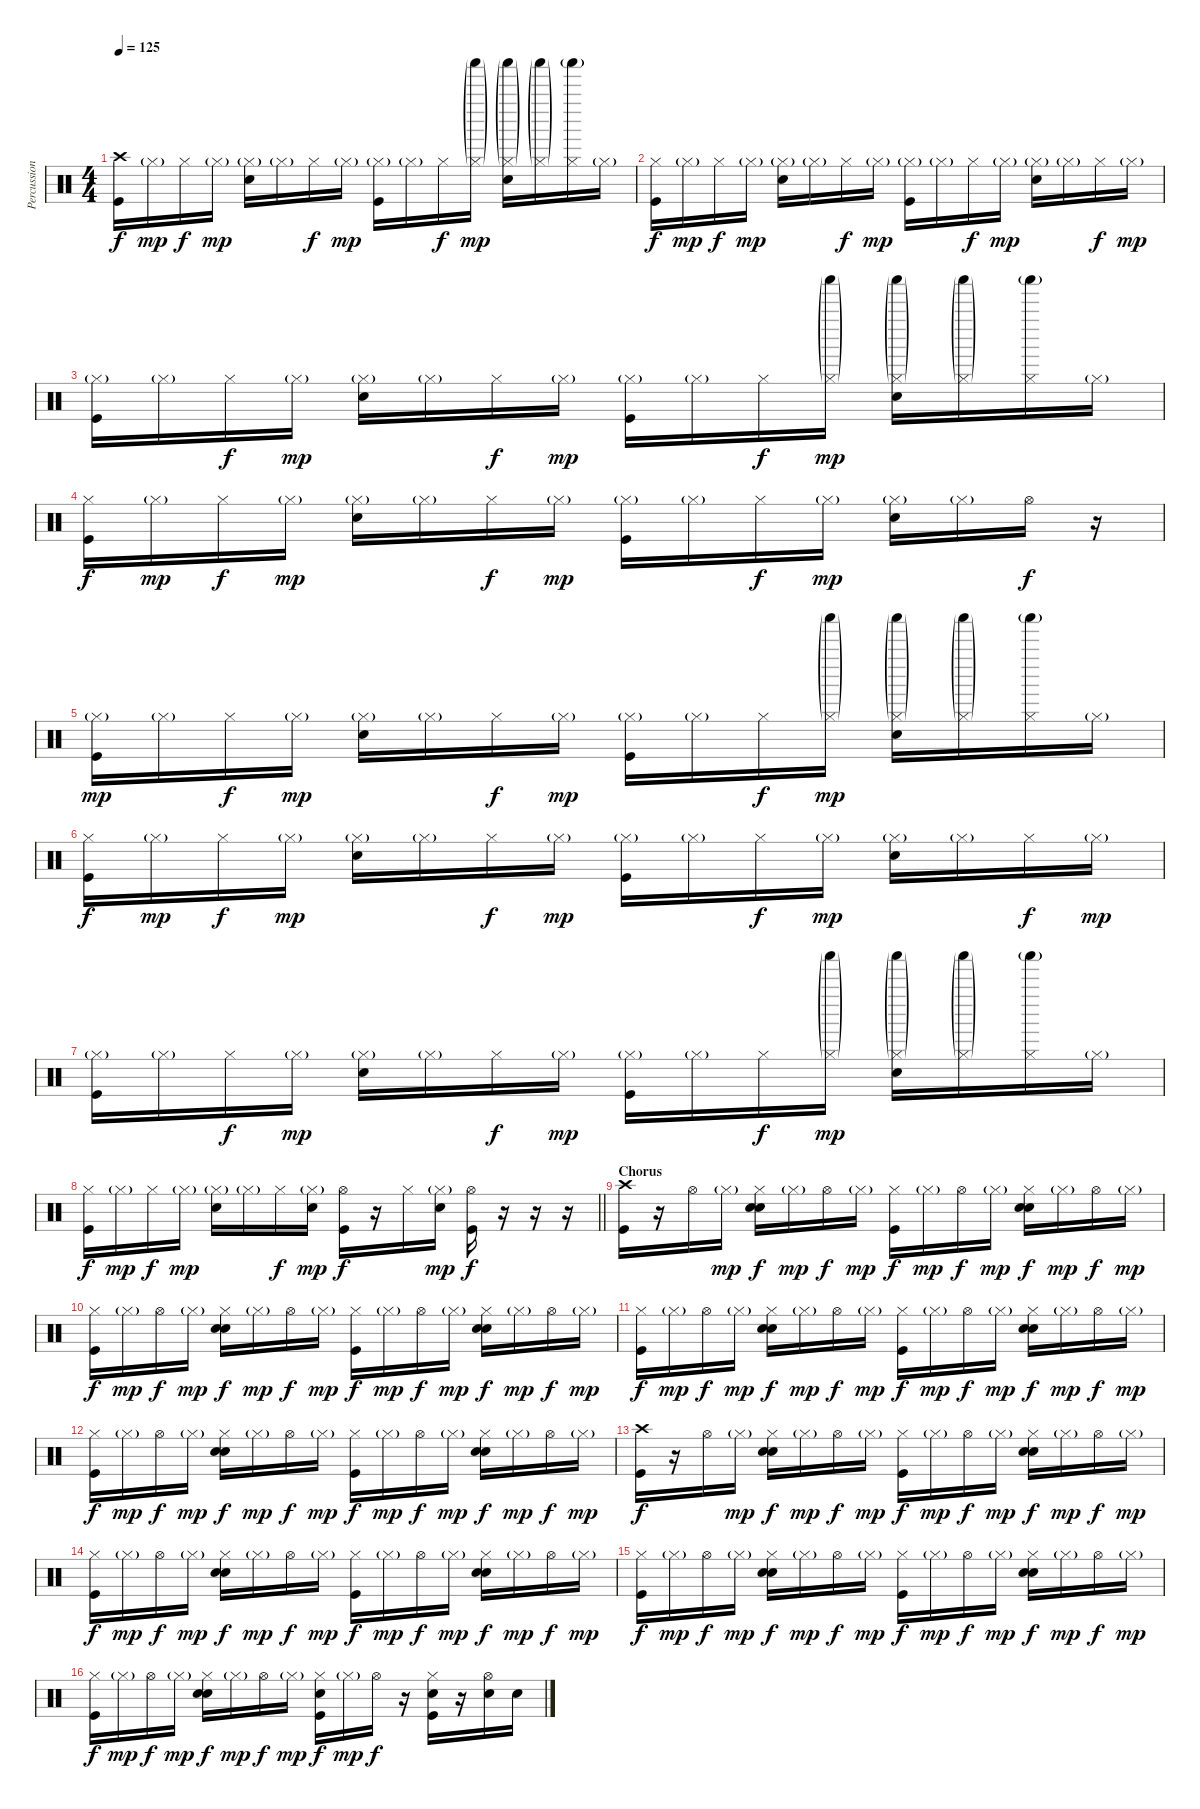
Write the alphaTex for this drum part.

\track ("Percussion" "Percussion") {instrument percussion}
\staff {score}
\articulation defaults
\ts (4 4)
\tempo 125
\clef neutral
\ks c
("Crash high (hit)" "Kick (hit)").16{dy f} "Hi-Hat (closed)"{g}.16{dy mp} "Hi-Hat (closed)".16{dy f} "Hi-Hat (closed)"{g}.16{dy mp} ("Hi-Hat (closed)"{g} "Snare (hit) 2").16 "Hi-Hat (closed)"{g}.16 "Hi-Hat (closed)".16{dy f} "Hi-Hat (closed)"{g}.16{dy mp} ("Hi-Hat (closed)"{g} "Kick (hit)").16 "Hi-Hat (closed)"{g}.16 "Hi-Hat (closed)".16{dy f} ("Shaker (hit)"{g} "Hi-Hat (closed)"{g}).16{dy mp} ("Shaker (hit)"{g} "Hi-Hat (closed)"{g} "Snare (hit) 2").16 ("Shaker (hit)"{g} "Hi-Hat (closed)"{g}).16 ("Shaker (hit)"{g} "Hi-Hat (closed)").16 "Hi-Hat (closed)"{g}.16 |
("Hi-Hat (closed)" "Kick (hit)").16{dy f} "Hi-Hat (closed)"{g}.16{dy mp} "Hi-Hat (closed)".16{dy f} "Hi-Hat (closed)"{g}.16{dy mp} ("Hi-Hat (closed)"{g} "Snare (hit) 2").16 "Hi-Hat (closed)"{g}.16 "Hi-Hat (closed)".16{dy f} "Hi-Hat (closed)"{g}.16{dy mp} ("Hi-Hat (closed)"{g} "Kick (hit)").16 "Hi-Hat (closed)"{g}.16 "Hi-Hat (closed)".16{dy f} "Hi-Hat (closed)"{g}.16{dy mp} ("Hi-Hat (closed)"{g} "Snare (hit) 2").16 "Hi-Hat (closed)"{g}.16 "Hi-Hat (closed)".16{dy f} "Hi-Hat (closed)"{g}.16{dy mp} |
("Hi-Hat (closed)"{g} "Kick (hit)").16 "Hi-Hat (closed)"{g}.16 "Hi-Hat (closed)".16{dy f} "Hi-Hat (closed)"{g}.16{dy mp} ("Hi-Hat (closed)"{g} "Snare (hit) 2").16 "Hi-Hat (closed)"{g}.16 "Hi-Hat (closed)".16{dy f} "Hi-Hat (closed)"{g}.16{dy mp} ("Hi-Hat (closed)"{g} "Kick (hit)").16 "Hi-Hat (closed)"{g}.16 "Hi-Hat (closed)".16{dy f} ("Shaker (hit)"{g} "Hi-Hat (closed)"{g}).16{dy mp} ("Shaker (hit)"{g} "Hi-Hat (closed)"{g} "Snare (hit) 2").16 ("Shaker (hit)"{g} "Hi-Hat (closed)"{g}).16 ("Shaker (hit)"{g} "Hi-Hat (closed)").16 "Hi-Hat (closed)"{g}.16 |
("Hi-Hat (closed)" "Kick (hit)").16{dy f} "Hi-Hat (closed)"{g}.16{dy mp} "Hi-Hat (closed)".16{dy f} "Hi-Hat (closed)"{g}.16{dy mp} ("Hi-Hat (closed)"{g} "Snare (hit) 2").16 "Hi-Hat (closed)"{g}.16 "Hi-Hat (closed)".16{dy f} "Hi-Hat (closed)"{g}.16{dy mp} ("Hi-Hat (closed)"{g} "Kick (hit)").16 "Hi-Hat (closed)"{g}.16 "Hi-Hat (closed)".16{dy f} "Hi-Hat (closed)"{g}.16{dy mp} ("Hi-Hat (closed)"{g} "Snare (hit) 2").16 "Hi-Hat (closed)"{g}.16 "Hi-Hat (open)".16{dy f} r.16 |
("Hi-Hat (closed)"{g} "Kick (hit)").16{dy mp} "Hi-Hat (closed)"{g}.16 "Hi-Hat (closed)".16{dy f} "Hi-Hat (closed)"{g}.16{dy mp} ("Hi-Hat (closed)"{g} "Snare (hit) 2").16 "Hi-Hat (closed)"{g}.16 "Hi-Hat (closed)".16{dy f} "Hi-Hat (closed)"{g}.16{dy mp} ("Hi-Hat (closed)"{g} "Kick (hit)").16 "Hi-Hat (closed)"{g}.16 "Hi-Hat (closed)".16{dy f} ("Shaker (hit)"{g} "Hi-Hat (closed)"{g}).16{dy mp} ("Shaker (hit)"{g} "Hi-Hat (closed)"{g} "Snare (hit) 2").16 ("Shaker (hit)"{g} "Hi-Hat (closed)"{g}).16 ("Shaker (hit)"{g} "Hi-Hat (closed)").16 "Hi-Hat (closed)"{g}.16 |
("Hi-Hat (closed)" "Kick (hit)").16{dy f} "Hi-Hat (closed)"{g}.16{dy mp} "Hi-Hat (closed)".16{dy f} "Hi-Hat (closed)"{g}.16{dy mp} ("Hi-Hat (closed)"{g} "Snare (hit) 2").16 "Hi-Hat (closed)"{g}.16 "Hi-Hat (closed)".16{dy f} "Hi-Hat (closed)"{g}.16{dy mp} ("Hi-Hat (closed)"{g} "Kick (hit)").16 "Hi-Hat (closed)"{g}.16 "Hi-Hat (closed)".16{dy f} "Hi-Hat (closed)"{g}.16{dy mp} ("Hi-Hat (closed)"{g} "Snare (hit) 2").16 "Hi-Hat (closed)"{g}.16 "Hi-Hat (closed)".16{dy f} "Hi-Hat (closed)"{g}.16{dy mp} |
("Hi-Hat (closed)"{g} "Kick (hit)").16 "Hi-Hat (closed)"{g}.16 "Hi-Hat (closed)".16{dy f} "Hi-Hat (closed)"{g}.16{dy mp} ("Hi-Hat (closed)"{g} "Snare (hit) 2").16 "Hi-Hat (closed)"{g}.16 "Hi-Hat (closed)".16{dy f} "Hi-Hat (closed)"{g}.16{dy mp} ("Hi-Hat (closed)"{g} "Kick (hit)").16 "Hi-Hat (closed)"{g}.16 "Hi-Hat (closed)".16{dy f} ("Shaker (hit)"{g} "Hi-Hat (closed)"{g}).16{dy mp} ("Shaker (hit)"{g} "Hi-Hat (closed)"{g} "Snare (hit) 2").16 ("Shaker (hit)"{g} "Hi-Hat (closed)"{g}).16 ("Shaker (hit)"{g} "Hi-Hat (closed)").16 "Hi-Hat (closed)"{g}.16 |
\barLineRight lightlight
("Hi-Hat (closed)" "Kick (hit)").16{dy f} "Hi-Hat (closed)"{g}.16{dy mp} "Hi-Hat (closed)".16{dy f} "Hi-Hat (closed)"{g}.16{dy mp} ("Hi-Hat (closed)"{g} "Snare (hit) 2").16 "Hi-Hat (closed)"{g}.16 "Hi-Hat (closed)".16{dy f} ("Hi-Hat (closed)"{g} "Snare (hit) 2").16{dy mp} ("Hi-Hat (open)" "Kick (hit)").16{dy f} r.16 "Hi-Hat (closed)".16 ("Hi-Hat (closed)"{g} "Snare (hit) 2").16{dy mp} ("Hi-Hat (open)" "Kick (hit)").16{dy f} r.16 r.16 r.16 |
\section ("" "Chorus")
("Crash high (hit)" "Kick (hit)").16 r.16 "Hi-Hat (open)".16 "Hi-Hat (closed)"{g}.16{dy mp} ("Hi-Hat (closed)" "Hand Clap (hit)" "Snare (hit) 2").16{dy f} "Hi-Hat (closed)"{g}.16{dy mp} "Hi-Hat (open)".16{dy f} "Hi-Hat (closed)"{g}.16{dy mp} ("Hi-Hat (closed)" "Kick (hit)").16{dy f} "Hi-Hat (closed)"{g}.16{dy mp} "Hi-Hat (open)".16{dy f} "Hi-Hat (closed)"{g}.16{dy mp} ("Hi-Hat (closed)" "Hand Clap (hit)" "Snare (hit) 2").16{dy f} "Hi-Hat (closed)"{g}.16{dy mp} "Hi-Hat (open)".16{dy f} "Hi-Hat (closed)"{g}.16{dy mp} |
("Hi-Hat (closed)" "Kick (hit)").16{dy f} "Hi-Hat (closed)"{g}.16{dy mp} "Hi-Hat (open)".16{dy f} "Hi-Hat (closed)"{g}.16{dy mp} ("Hi-Hat (closed)" "Hand Clap (hit)" "Snare (hit) 2").16{dy f} "Hi-Hat (closed)"{g}.16{dy mp} "Hi-Hat (open)".16{dy f} "Hi-Hat (closed)"{g}.16{dy mp} ("Hi-Hat (closed)" "Kick (hit)").16{dy f} "Hi-Hat (closed)"{g}.16{dy mp} "Hi-Hat (open)".16{dy f} "Hi-Hat (closed)"{g}.16{dy mp} ("Hi-Hat (closed)" "Hand Clap (hit)" "Snare (hit) 2").16{dy f} "Hi-Hat (closed)"{g}.16{dy mp} "Hi-Hat (open)".16{dy f} "Hi-Hat (closed)"{g}.16{dy mp} |
("Hi-Hat (closed)" "Kick (hit)").16{dy f} "Hi-Hat (closed)"{g}.16{dy mp} "Hi-Hat (open)".16{dy f} "Hi-Hat (closed)"{g}.16{dy mp} ("Hi-Hat (closed)" "Hand Clap (hit)" "Snare (hit) 2").16{dy f} "Hi-Hat (closed)"{g}.16{dy mp} "Hi-Hat (open)".16{dy f} "Hi-Hat (closed)"{g}.16{dy mp} ("Hi-Hat (closed)" "Kick (hit)").16{dy f} "Hi-Hat (closed)"{g}.16{dy mp} "Hi-Hat (open)".16{dy f} "Hi-Hat (closed)"{g}.16{dy mp} ("Hi-Hat (closed)" "Hand Clap (hit)" "Snare (hit) 2").16{dy f} "Hi-Hat (closed)"{g}.16{dy mp} "Hi-Hat (open)".16{dy f} "Hi-Hat (closed)"{g}.16{dy mp} |
("Hi-Hat (closed)" "Kick (hit)").16{dy f} "Hi-Hat (closed)"{g}.16{dy mp} "Hi-Hat (open)".16{dy f} "Hi-Hat (closed)"{g}.16{dy mp} ("Hi-Hat (closed)" "Hand Clap (hit)" "Snare (hit) 2").16{dy f} "Hi-Hat (closed)"{g}.16{dy mp} "Hi-Hat (open)".16{dy f} "Hi-Hat (closed)"{g}.16{dy mp} ("Hi-Hat (closed)" "Kick (hit)").16{dy f} "Hi-Hat (closed)"{g}.16{dy mp} "Hi-Hat (open)".16{dy f} "Hi-Hat (closed)"{g}.16{dy mp} ("Hi-Hat (closed)" "Hand Clap (hit)" "Snare (hit) 2").16{dy f} "Hi-Hat (closed)"{g}.16{dy mp} "Hi-Hat (open)".16{dy f} "Hi-Hat (closed)"{g}.16{dy mp} |
("Crash high (hit)" "Kick (hit)").16{dy f} r.16 "Hi-Hat (open)".16 "Hi-Hat (closed)"{g}.16{dy mp} ("Hi-Hat (closed)" "Hand Clap (hit)" "Snare (hit) 2").16{dy f} "Hi-Hat (closed)"{g}.16{dy mp} "Hi-Hat (open)".16{dy f} "Hi-Hat (closed)"{g}.16{dy mp} ("Hi-Hat (closed)" "Kick (hit)").16{dy f} "Hi-Hat (closed)"{g}.16{dy mp} "Hi-Hat (open)".16{dy f} "Hi-Hat (closed)"{g}.16{dy mp} ("Hi-Hat (closed)" "Hand Clap (hit)" "Snare (hit) 2").16{dy f} "Hi-Hat (closed)"{g}.16{dy mp} "Hi-Hat (open)".16{dy f} "Hi-Hat (closed)"{g}.16{dy mp} |
("Hi-Hat (closed)" "Kick (hit)").16{dy f} "Hi-Hat (closed)"{g}.16{dy mp} "Hi-Hat (open)".16{dy f} "Hi-Hat (closed)"{g}.16{dy mp} ("Hi-Hat (closed)" "Hand Clap (hit)" "Snare (hit) 2").16{dy f} "Hi-Hat (closed)"{g}.16{dy mp} "Hi-Hat (open)".16{dy f} "Hi-Hat (closed)"{g}.16{dy mp} ("Hi-Hat (closed)" "Kick (hit)").16{dy f} "Hi-Hat (closed)"{g}.16{dy mp} "Hi-Hat (open)".16{dy f} "Hi-Hat (closed)"{g}.16{dy mp} ("Hi-Hat (closed)" "Hand Clap (hit)" "Snare (hit) 2").16{dy f} "Hi-Hat (closed)"{g}.16{dy mp} "Hi-Hat (open)".16{dy f} "Hi-Hat (closed)"{g}.16{dy mp} |
("Hi-Hat (closed)" "Kick (hit)").16{dy f} "Hi-Hat (closed)"{g}.16{dy mp} "Hi-Hat (open)".16{dy f} "Hi-Hat (closed)"{g}.16{dy mp} ("Hi-Hat (closed)" "Hand Clap (hit)" "Snare (hit) 2").16{dy f} "Hi-Hat (closed)"{g}.16{dy mp} "Hi-Hat (open)".16{dy f} "Hi-Hat (closed)"{g}.16{dy mp} ("Hi-Hat (closed)" "Kick (hit)").16{dy f} "Hi-Hat (closed)"{g}.16{dy mp} "Hi-Hat (open)".16{dy f} "Hi-Hat (closed)"{g}.16{dy mp} ("Hi-Hat (closed)" "Hand Clap (hit)" "Snare (hit) 2").16{dy f} "Hi-Hat (closed)"{g}.16{dy mp} "Hi-Hat (open)".16{dy f} "Hi-Hat (closed)"{g}.16{dy mp} |
("Hi-Hat (closed)" "Kick (hit)").16{dy f} "Hi-Hat (closed)"{g}.16{dy mp} "Hi-Hat (open)".16{dy f} "Hi-Hat (closed)"{g}.16{dy mp} ("Hi-Hat (closed)" "Hand Clap (hit)" "Snare (hit) 2").16{dy f} "Hi-Hat (closed)"{g}.16{dy mp} "Hi-Hat (open)".16{dy f} "Hi-Hat (closed)"{g}.16{dy mp} ("Hi-Hat (closed)" "Snare (hit) 2" "Kick (hit)").16{dy f} "Hi-Hat (closed)"{g}.16{dy mp} "Hi-Hat (open)".16{dy f} r.16 ("Hi-Hat (closed)" "Snare (hit) 2" "Kick (hit)").16 r.16 ("Hi-Hat (open)" "Snare (hit) 2").16 "Snare (hit) 2".16
